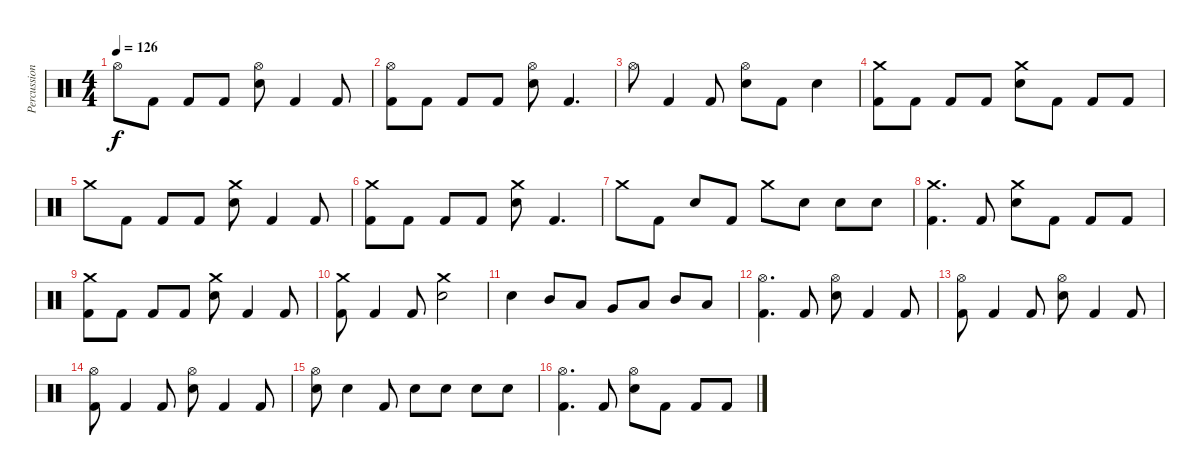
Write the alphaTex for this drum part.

\track ("Percussion" "Percussion") {instrument percussion}
\staff {score}
\articulation defaults
\ts (4 4)
\tempo 126
\clef neutral
\ks c "Hi-Hat (open)".8{dy f} "Kick (hit) 2".8 "Kick (hit) 2".8 "Kick (hit) 2".8
("Hi-Hat (open)" "Electric Snare (hit)").8 "Kick (hit) 2".4 "Kick (hit) 2".8 |
("Hi-Hat (open)" "Kick (hit) 2").8 "Kick (hit) 2".8 "Kick (hit) 2".8 "Kick (hit) 2".8 ("Hi-Hat (open)" "Electric Snare (hit)").8 "Kick (hit) 2".4{d} |
"Hi-Hat (open)".8 "Kick (hit) 2".4 "Kick (hit) 2".8 ("Hi-Hat (open)" "Electric Snare (hit)").8 "Kick (hit) 2".8 "Electric Snare (hit)".4 |
("Crash medium (hit)" "Kick (hit) 2").8 "Kick (hit) 2".8 "Kick (hit) 2".8 "Kick (hit) 2".8 ("Crash medium (hit)" "Electric Snare (hit)").8 "Kick (hit) 2".8 "Kick (hit) 2".8 "Kick (hit) 2".8 |
"Crash medium (hit)".8 "Kick (hit) 2".8 "Kick (hit) 2".8 "Kick (hit) 2".8 ("Crash medium (hit)" "Electric Snare (hit)").8 "Kick (hit) 2".4 "Kick (hit) 2".8 |
("Crash medium (hit)" "Kick (hit) 2").8 "Kick (hit) 2".8 "Kick (hit) 2".8 "Kick (hit) 2".8 ("Crash medium (hit)" "Electric Snare (hit)").8 "Kick (hit) 2".4{d} |
"Crash medium (hit)".8 "Kick (hit) 2".8 "Electric Snare (hit)".8 "Kick (hit) 2".8 "Crash medium (hit)".8 "Electric Snare (hit)".8 "Electric Snare (hit)".8 "Electric Snare (hit)".8 |
("Crash medium (hit)" "Kick (hit) 2").4{d} "Kick (hit) 2".8 ("Crash medium (hit)" "Electric Snare (hit)").8 "Kick (hit) 2".8 "Kick (hit) 2".8 "Kick (hit) 2".8 |
("Crash medium (hit)" "Kick (hit) 2").8 "Kick (hit) 2".8 "Kick (hit) 2".8 "Kick (hit) 2".8 ("Crash medium (hit)" "Electric Snare (hit)").8 "Kick (hit) 2".4 "Kick (hit) 2".8 |
("Crash medium (hit)" "Kick (hit) 2").8 "Kick (hit) 2".4 "Kick (hit) 2".8 ("Crash medium (hit)" "Electric Snare (hit)").2 |
"Electric Snare (hit)".4 "Mid Tom (hit)".8 "Low Tom (hit)".8 "Very Low Tom (hit)".8 "Low Floor Tom (hit)".8 "Mid Tom (hit)".8 "Low Tom (hit)".8 |
("Hi-Hat (open)" "Kick (hit) 2").4{d} "Kick (hit) 2".8 ("Hi-Hat (open)" "Electric Snare (hit)").8 "Kick (hit) 2".4 "Kick (hit) 2".8 |
("Hi-Hat (open)" "Kick (hit) 2").8 "Kick (hit) 2".4 "Kick (hit) 2".8 ("Hi-Hat (open)" "Electric Snare (hit)").8 "Kick (hit) 2".4 "Kick (hit) 2".8 |
("Hi-Hat (open)" "Kick (hit) 2").8 "Kick (hit) 2".4 "Kick (hit) 2".8 ("Hi-Hat (open)" "Electric Snare (hit)").8 "Kick (hit) 2".4 "Kick (hit) 2".8 |
("Hi-Hat (open)" "Electric Snare (hit)").8 "Electric Snare (hit)".4 "Kick (hit) 2".8 "Electric Snare (hit)".8 "Electric Snare (hit)".8 "Electric Snare (hit)".8 "Electric Snare (hit)".8 |
("Hi-Hat (open)" "Kick (hit) 2").4{d} "Kick (hit) 2".8 ("Hi-Hat (open)" "Electric Snare (hit)").8 "Kick (hit) 2".8 "Kick (hit) 2".8 "Kick (hit) 2".8
